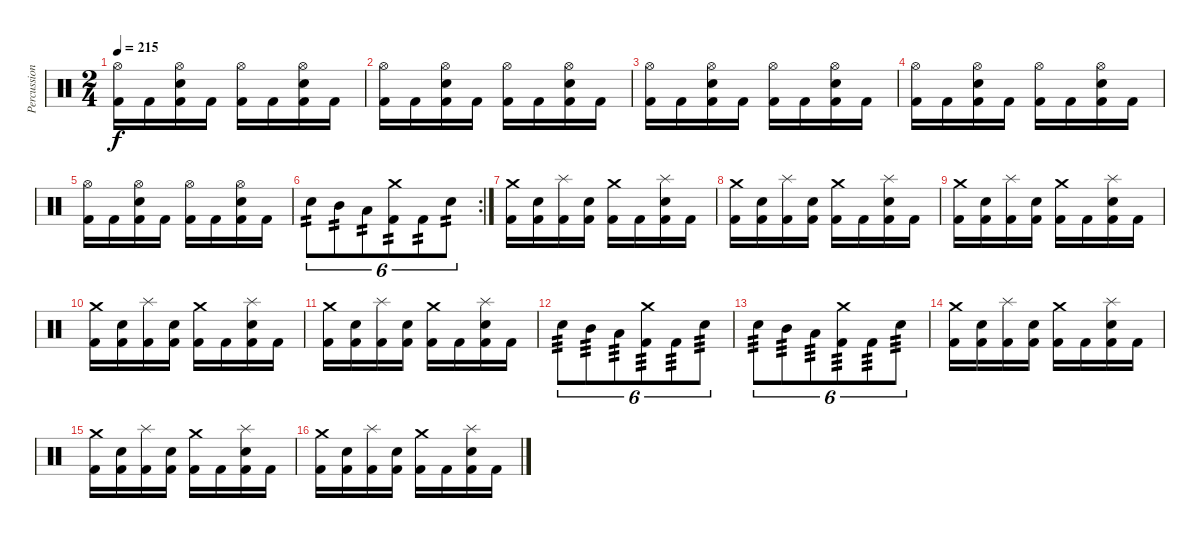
\track ("Percussion" "Percussion") {instrument percussion}
\staff {score}
\articulation defaults
\ts (2 4)
\tempo 215
\clef neutral
\ks c
("Kick (hit) 2" "Hi-Hat (open)").16{dy f} "Kick (hit) 2".16 ("Kick (hit) 2" "Snare (hit) 2" "Hi-Hat (open)").16 "Kick (hit) 2".16 ("Kick (hit) 2" "Hi-Hat (open)").16 "Kick (hit) 2".16 ("Kick (hit) 2" "Snare (hit) 2" "Hi-Hat (open)").16 "Kick (hit) 2".16 |
("Kick (hit) 2" "Hi-Hat (open)").16 "Kick (hit) 2".16 ("Kick (hit) 2" "Snare (hit) 2" "Hi-Hat (open)").16 "Kick (hit) 2".16 ("Kick (hit) 2" "Hi-Hat (open)").16 "Kick (hit) 2".16 ("Kick (hit) 2" "Snare (hit) 2" "Hi-Hat (open)").16 "Kick (hit) 2".16 |
("Kick (hit) 2" "Hi-Hat (open)").16 "Kick (hit) 2".16 ("Kick (hit) 2" "Snare (hit) 2" "Hi-Hat (open)").16 "Kick (hit) 2".16 ("Kick (hit) 2" "Hi-Hat (open)").16 "Kick (hit) 2".16 ("Kick (hit) 2" "Snare (hit) 2" "Hi-Hat (open)").16 "Kick (hit) 2".16 |
("Kick (hit) 2" "Hi-Hat (open)").16 "Kick (hit) 2".16 ("Kick (hit) 2" "Snare (hit) 2" "Hi-Hat (open)").16 "Kick (hit) 2".16 ("Kick (hit) 2" "Hi-Hat (open)").16 "Kick (hit) 2".16 ("Kick (hit) 2" "Snare (hit) 2" "Hi-Hat (open)").16 "Kick (hit) 2".16 |
("Kick (hit) 2" "Hi-Hat (open)").16 "Kick (hit) 2".16 ("Kick (hit) 2" "Snare (hit) 2" "Hi-Hat (open)").16 "Kick (hit) 2".16 ("Kick (hit) 2" "Hi-Hat (open)").16 "Kick (hit) 2".16 ("Kick (hit) 2" "Snare (hit) 2" "Hi-Hat (open)").16 "Kick (hit) 2".16 |
\rc 2 "Snare (hit) 2".8{tu (6 4) tp 2} "Mid Tom (hit)".8{tu (6 4) tp 2} "Low Tom (hit)".8{tu (6 4) tp 2}
("Crash medium (hit)" "Kick (hit) 2").8{tu (6 4) tp 2} "Kick (hit) 2".8{tu (6 4) tp 2} "Snare (hit) 2".8{tu (6 4) tp 2} |
("Kick (hit) 2" "Crash medium (hit)").16 ("Kick (hit) 2" "Snare (hit) 2").16 ("Kick (hit) 2" "Splash (hit)").16 ("Kick (hit) 2" "Snare (hit) 2").16 ("Kick (hit) 2" "Crash medium (hit)").16 "Kick (hit) 2".16 ("Kick (hit) 2" "Snare (hit) 2" "Splash (hit)").16 "Kick (hit) 2".16 |
("Kick (hit) 2" "Crash medium (hit)").16 ("Kick (hit) 2" "Snare (hit) 2").16 ("Kick (hit) 2" "Splash (hit)").16 ("Kick (hit) 2" "Snare (hit) 2").16 ("Kick (hit) 2" "Crash medium (hit)").16 "Kick (hit) 2".16 ("Kick (hit) 2" "Snare (hit) 2" "Splash (hit)").16 "Kick (hit) 2".16 |
("Kick (hit) 2" "Crash medium (hit)").16 ("Kick (hit) 2" "Snare (hit) 2").16 ("Kick (hit) 2" "Splash (hit)").16 ("Kick (hit) 2" "Snare (hit) 2").16 ("Kick (hit) 2" "Crash medium (hit)").16 "Kick (hit) 2".16 ("Kick (hit) 2" "Snare (hit) 2" "Splash (hit)").16 "Kick (hit) 2".16 |
("Kick (hit) 2" "Crash medium (hit)").16 ("Kick (hit) 2" "Snare (hit) 2").16 ("Kick (hit) 2" "Splash (hit)").16 ("Kick (hit) 2" "Snare (hit) 2").16 ("Kick (hit) 2" "Crash medium (hit)").16 "Kick (hit) 2".16 ("Kick (hit) 2" "Snare (hit) 2" "Splash (hit)").16 "Kick (hit) 2".16 |
("Kick (hit) 2" "Crash medium (hit)").16 ("Kick (hit) 2" "Snare (hit) 2").16 ("Kick (hit) 2" "Splash (hit)").16 ("Kick (hit) 2" "Snare (hit) 2").16 ("Kick (hit) 2" "Crash medium (hit)").16 "Kick (hit) 2".16 ("Kick (hit) 2" "Snare (hit) 2" "Splash (hit)").16 "Kick (hit) 2".16 |
"Snare (hit) 2".8{tu (6 4) tp 3} "Mid Tom (hit)".8{tu (6 4) tp 3} "Low Tom (hit)".8{tu (6 4) tp 3} ("Crash medium (hit)" "Kick (hit) 2").8{tu (6 4) tp 3} "Kick (hit) 2".8{tu (6 4) tp 3} "Snare (hit) 2".8{tu (6 4) tp 3} |
"Snare (hit) 2".8{tu (6 4) tp 3} "Mid Tom (hit)".8{tu (6 4) tp 3} "Low Tom (hit)".8{tu (6 4) tp 3} ("Crash medium (hit)" "Kick (hit) 2").8{tu (6 4) tp 3} "Kick (hit) 2".8{tu (6 4) tp 3} "Snare (hit) 2".8{tu (6 4) tp 3} |
("Kick (hit) 2" "Crash medium (hit)").16 ("Kick (hit) 2" "Snare (hit) 2").16 ("Kick (hit) 2" "Splash (hit)").16 ("Kick (hit) 2" "Snare (hit) 2").16 ("Kick (hit) 2" "Crash medium (hit)").16 "Kick (hit) 2".16 ("Kick (hit) 2" "Snare (hit) 2" "Splash (hit)").16 "Kick (hit) 2".16 |
("Kick (hit) 2" "Crash medium (hit)").16 ("Kick (hit) 2" "Snare (hit) 2").16 ("Kick (hit) 2" "Splash (hit)").16 ("Kick (hit) 2" "Snare (hit) 2").16 ("Kick (hit) 2" "Crash medium (hit)").16 "Kick (hit) 2".16 ("Kick (hit) 2" "Snare (hit) 2" "Splash (hit)").16 "Kick (hit) 2".16 |
("Kick (hit) 2" "Crash medium (hit)").16 ("Kick (hit) 2" "Snare (hit) 2").16 ("Kick (hit) 2" "Splash (hit)").16 ("Kick (hit) 2" "Snare (hit) 2").16 ("Kick (hit) 2" "Crash medium (hit)").16 "Kick (hit) 2".16 ("Kick (hit) 2" "Snare (hit) 2" "Splash (hit)").16 "Kick (hit) 2".16
